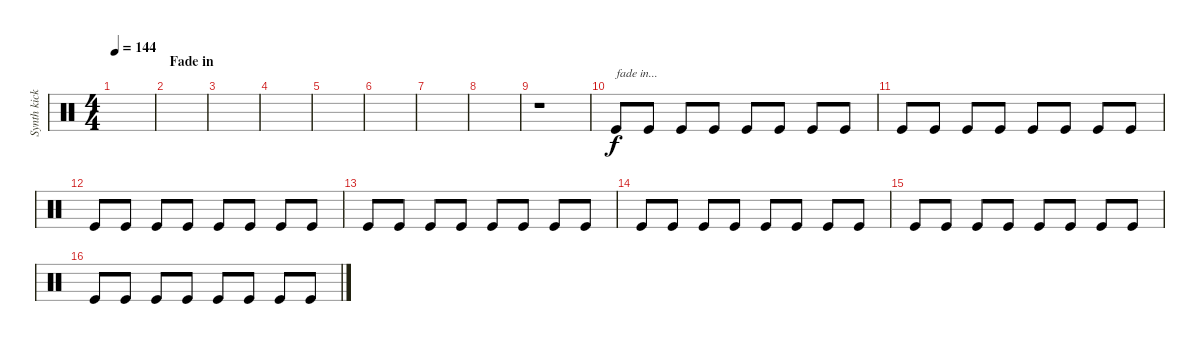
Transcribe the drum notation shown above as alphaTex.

\track ("Synth kick loop" "Synth kick") {instrument percussion}
\staff {score}
\articulation defaults
\ts (4 4)
\tempo 144
\clef neutral
\ks c
|
\section ("" "Fade in")
|
|
|
|
|
|
|
r.1{volume 0} |
"Kick (hit)".8{txt "fade in..." volume 12} "Kick (hit)".8 "Kick (hit)".8 "Kick (hit)".8 "Kick (hit)".8 "Kick (hit)".8 "Kick (hit)".8 "Kick (hit)".8 |
"Kick (hit)".8 "Kick (hit)".8 "Kick (hit)".8 "Kick (hit)".8 "Kick (hit)".8 "Kick (hit)".8 "Kick (hit)".8 "Kick (hit)".8 |
"Kick (hit)".8 "Kick (hit)".8 "Kick (hit)".8 "Kick (hit)".8 "Kick (hit)".8 "Kick (hit)".8 "Kick (hit)".8 "Kick (hit)".8 |
"Kick (hit)".8 "Kick (hit)".8 "Kick (hit)".8 "Kick (hit)".8 "Kick (hit)".8 "Kick (hit)".8 "Kick (hit)".8 "Kick (hit)".8 |
"Kick (hit)".8 "Kick (hit)".8 "Kick (hit)".8 "Kick (hit)".8 "Kick (hit)".8 "Kick (hit)".8 "Kick (hit)".8 "Kick (hit)".8 |
"Kick (hit)".8 "Kick (hit)".8 "Kick (hit)".8 "Kick (hit)".8 "Kick (hit)".8 "Kick (hit)".8 "Kick (hit)".8 "Kick (hit)".8 |
"Kick (hit)".8 "Kick (hit)".8 "Kick (hit)".8 "Kick (hit)".8 "Kick (hit)".8 "Kick (hit)".8 "Kick (hit)".8 "Kick (hit)".8
